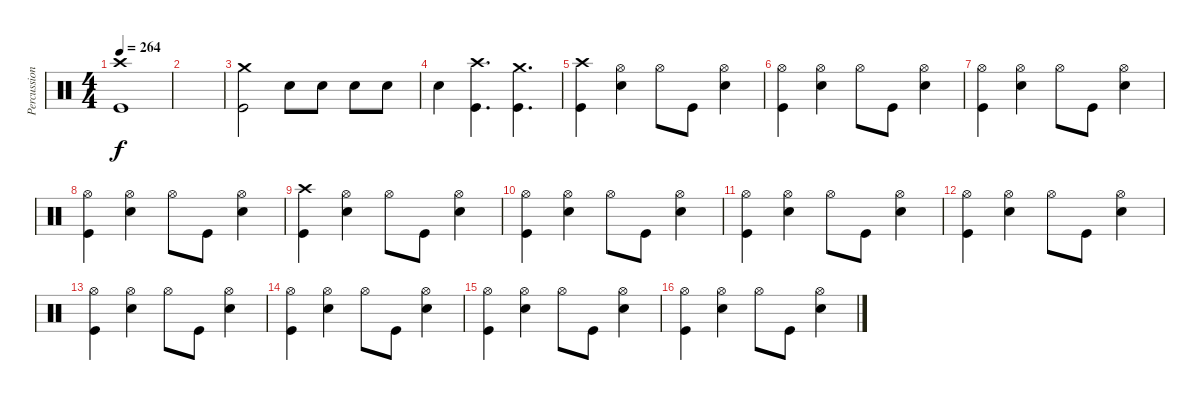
\track ("Percussion" "Percussion") {instrument percussion}
\staff {score}
\articulation defaults
\ts (4 4)
\tempo 264
\clef neutral
\ks c
("Crash high (hit)" "Kick (hit)").1{dy f} |
|
("Crash medium (hit)" "Kick (hit)").2 "Snare (hit) 2".8 "Snare (hit) 2".8 "Snare (hit) 2".8 "Snare (hit) 2".8 |
"Snare (hit) 2".4 ("Crash high (hit)" "Kick (hit)").4{d} ("Crash medium (hit)" "Kick (hit)").4{d} |
("Crash high (hit)" "Kick (hit)").4 ("Hi-Hat (open)" "Snare (hit) 2").4 "Hi-Hat (open)".8 "Kick (hit)".8 ("Hi-Hat (open)" "Snare (hit) 2").4 |
("Hi-Hat (open)" "Kick (hit)").4 ("Hi-Hat (open)" "Snare (hit) 2").4 "Hi-Hat (open)".8 "Kick (hit)".8 ("Hi-Hat (open)" "Snare (hit) 2").4 |
("Hi-Hat (open)" "Kick (hit)").4 ("Hi-Hat (open)" "Snare (hit) 2").4 "Hi-Hat (open)".8 "Kick (hit)".8 ("Hi-Hat (open)" "Snare (hit) 2").4 |
("Hi-Hat (open)" "Kick (hit)").4 ("Hi-Hat (open)" "Snare (hit) 2").4 "Hi-Hat (open)".8 "Kick (hit)".8 ("Hi-Hat (open)" "Snare (hit) 2").4 |
("Crash high (hit)" "Kick (hit)").4 ("Hi-Hat (open)" "Snare (hit) 2").4 "Hi-Hat (open)".8 "Kick (hit)".8 ("Hi-Hat (open)" "Snare (hit) 2").4 |
("Hi-Hat (open)" "Kick (hit)").4 ("Hi-Hat (open)" "Snare (hit) 2").4 "Hi-Hat (open)".8 "Kick (hit)".8 ("Hi-Hat (open)" "Snare (hit) 2").4 |
("Hi-Hat (open)" "Kick (hit)").4 ("Hi-Hat (open)" "Snare (hit) 2").4 "Hi-Hat (open)".8 "Kick (hit)".8 ("Hi-Hat (open)" "Snare (hit) 2").4 |
("Hi-Hat (open)" "Kick (hit)").4 ("Hi-Hat (open)" "Snare (hit) 2").4 "Hi-Hat (open)".8 "Kick (hit)".8 ("Hi-Hat (open)" "Snare (hit) 2").4 |
("Hi-Hat (open)" "Kick (hit)").4 ("Hi-Hat (open)" "Snare (hit) 2").4 "Hi-Hat (open)".8 "Kick (hit)".8 ("Hi-Hat (open)" "Snare (hit) 2").4 |
("Hi-Hat (open)" "Kick (hit)").4 ("Hi-Hat (open)" "Snare (hit) 2").4 "Hi-Hat (open)".8 "Kick (hit)".8 ("Hi-Hat (open)" "Snare (hit) 2").4 |
("Hi-Hat (open)" "Kick (hit)").4 ("Hi-Hat (open)" "Snare (hit) 2").4 "Hi-Hat (open)".8 "Kick (hit)".8 ("Hi-Hat (open)" "Snare (hit) 2").4 |
("Hi-Hat (open)" "Kick (hit)").4 ("Hi-Hat (open)" "Snare (hit) 2").4 "Hi-Hat (open)".8 "Kick (hit)".8 ("Hi-Hat (open)" "Snare (hit) 2").4
